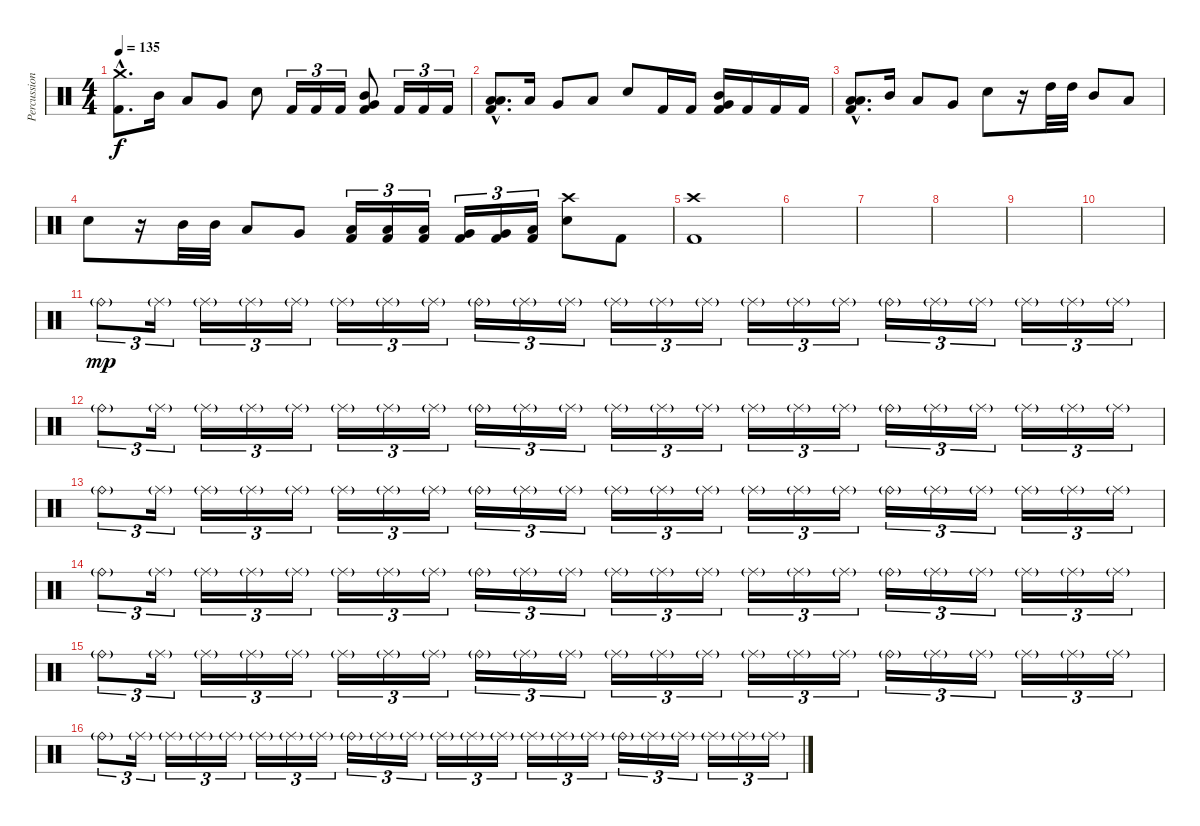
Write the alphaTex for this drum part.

\track ("Percussion" "Percussion") {instrument percussion}
\staff {score}
\articulation defaults
\ts (4 4)
\tempo 135
\clef neutral
\ks c
("Crash medium (hit)"{hac} "Kick (hit) 2"{hac}).8{d dy f} "Mid Tom (hit)".16 "Low Tom (hit)".8 "Very Low Tom (hit)".8 "Electric Snare (hit)".8 "Kick (hit) 2".16{tu (3 2)} "Kick (hit) 2".16{tu (3 2)} "Kick (hit) 2".16{tu (3 2)} ("Mid Tom (hit)" "Very Low Tom (hit)" "Kick (hit) 2").8 "Kick (hit) 2".16{tu (3 2)} "Kick (hit) 2".16{tu (3 2)} "Kick (hit) 2".16{tu (3 2)} |
("Low Tom (hit)"{hac} "Low Floor Tom (hit)"{hac} "Kick (hit) 2"{hac}).8{d} "Low Tom (hit)".16 "Very Low Tom (hit)".8 "Low Floor Tom (hit)".8 "Electric Snare (hit)".8 "Kick (hit) 2".16 "Kick (hit) 2".16 ("Mid Tom (hit)" "Very Low Tom (hit)" "Kick (hit) 2").16 "Kick (hit) 2".16 "Kick (hit) 2".16 "Kick (hit) 2".16 |
("Low Tom (hit)"{hac} "Low Floor Tom (hit)"{hac} "Kick (hit) 2"{hac}).8{d} "Mid Tom (hit)".16 "Low Tom (hit)".8 "Very Low Tom (hit)".8 "Electric Snare (hit)".8 r.16 "High Tom (hit)".32 "High Tom (hit)".32 "Mid Tom (hit)".8 "Low Tom (hit)".8 |
"Electric Snare (hit)".8 r.16 "Mid Tom (hit)".32 "Mid Tom (hit)".32 "Low Tom (hit)".8 "Very Low Tom (hit)".8 ("Low Tom (hit)" "Kick (hit) 2").16{tu (3 2)} ("Low Tom (hit)" "Kick (hit) 2").16{tu (3 2)} ("Low Tom (hit)" "Kick (hit) 2").16{tu (3 2)} ("Very Low Tom (hit)" "Kick (hit) 2").16{tu (3 2)} ("Very Low Tom (hit)" "Kick (hit) 2").16{tu (3 2)} ("Low Floor Tom (hit)" "Kick (hit) 2").16{tu (3 2)} ("Crash high (hit)" "Electric Snare (hit)").8 "Kick (hit) 2".8 |
("Crash high (hit)" "Kick (hit) 2").1 |
|
|
|
|
|
"Ride (bell)"{g}.8{tu (3 2) dy mp} "Ride (middle)"{g}.16{tu (3 2)} "Ride (middle)"{g}.16{tu (3 2)} "Ride (middle)"{g}.16{tu (3 2)} "Ride (middle)"{g}.16{tu (3 2)} "Ride (middle)"{g}.16{tu (3 2)} "Ride (middle)"{g}.16{tu (3 2)} "Ride (middle)"{g}.16{tu (3 2)} "Ride (bell)"{g}.16{tu (3 2)} "Ride (middle)"{g}.16{tu (3 2)} "Ride (middle)"{g}.16{tu (3 2)} "Ride (middle)"{g}.16{tu (3 2)} "Ride (middle)"{g}.16{tu (3 2)} "Ride (middle)"{g}.16{tu (3 2)} "Ride (middle)"{g}.16{tu (3 2)} "Ride (middle)"{g}.16{tu (3 2)} "Ride (middle)"{g}.16{tu (3 2)} "Ride (bell)"{g}.16{tu (3 2)} "Ride (middle)"{g}.16{tu (3 2)} "Ride (middle)"{g}.16{tu (3 2)} "Ride (middle)"{g}.16{tu (3 2)} "Ride (middle)"{g}.16{tu (3 2)} "Ride (middle)"{g}.16{tu (3 2)} |
"Ride (bell)"{g}.8{tu (3 2)} "Ride (middle)"{g}.16{tu (3 2)} "Ride (middle)"{g}.16{tu (3 2)} "Ride (middle)"{g}.16{tu (3 2)} "Ride (middle)"{g}.16{tu (3 2)} "Ride (middle)"{g}.16{tu (3 2)} "Ride (middle)"{g}.16{tu (3 2)} "Ride (middle)"{g}.16{tu (3 2)} "Ride (bell)"{g}.16{tu (3 2)} "Ride (middle)"{g}.16{tu (3 2)} "Ride (middle)"{g}.16{tu (3 2)} "Ride (middle)"{g}.16{tu (3 2)} "Ride (middle)"{g}.16{tu (3 2)} "Ride (middle)"{g}.16{tu (3 2)} "Ride (middle)"{g}.16{tu (3 2)} "Ride (middle)"{g}.16{tu (3 2)} "Ride (middle)"{g}.16{tu (3 2)} "Ride (bell)"{g}.16{tu (3 2)} "Ride (middle)"{g}.16{tu (3 2)} "Ride (middle)"{g}.16{tu (3 2)} "Ride (middle)"{g}.16{tu (3 2)} "Ride (middle)"{g}.16{tu (3 2)} "Ride (middle)"{g}.16{tu (3 2)} |
"Ride (bell)"{g}.8{tu (3 2)} "Ride (middle)"{g}.16{tu (3 2)} "Ride (middle)"{g}.16{tu (3 2)} "Ride (middle)"{g}.16{tu (3 2)} "Ride (middle)"{g}.16{tu (3 2)} "Ride (middle)"{g}.16{tu (3 2)} "Ride (middle)"{g}.16{tu (3 2)} "Ride (middle)"{g}.16{tu (3 2)} "Ride (bell)"{g}.16{tu (3 2)} "Ride (middle)"{g}.16{tu (3 2)} "Ride (middle)"{g}.16{tu (3 2)} "Ride (middle)"{g}.16{tu (3 2)} "Ride (middle)"{g}.16{tu (3 2)} "Ride (middle)"{g}.16{tu (3 2)} "Ride (middle)"{g}.16{tu (3 2)} "Ride (middle)"{g}.16{tu (3 2)} "Ride (middle)"{g}.16{tu (3 2)} "Ride (bell)"{g}.16{tu (3 2)} "Ride (middle)"{g}.16{tu (3 2)} "Ride (middle)"{g}.16{tu (3 2)} "Ride (middle)"{g}.16{tu (3 2)} "Ride (middle)"{g}.16{tu (3 2)} "Ride (middle)"{g}.16{tu (3 2)} |
"Ride (bell)"{g}.8{tu (3 2)} "Ride (middle)"{g}.16{tu (3 2)} "Ride (middle)"{g}.16{tu (3 2)} "Ride (middle)"{g}.16{tu (3 2)} "Ride (middle)"{g}.16{tu (3 2)} "Ride (middle)"{g}.16{tu (3 2)} "Ride (middle)"{g}.16{tu (3 2)} "Ride (middle)"{g}.16{tu (3 2)} "Ride (bell)"{g}.16{tu (3 2)} "Ride (middle)"{g}.16{tu (3 2)} "Ride (middle)"{g}.16{tu (3 2)} "Ride (middle)"{g}.16{tu (3 2)} "Ride (middle)"{g}.16{tu (3 2)} "Ride (middle)"{g}.16{tu (3 2)} "Ride (middle)"{g}.16{tu (3 2)} "Ride (middle)"{g}.16{tu (3 2)} "Ride (middle)"{g}.16{tu (3 2)} "Ride (bell)"{g}.16{tu (3 2)} "Ride (middle)"{g}.16{tu (3 2)} "Ride (middle)"{g}.16{tu (3 2)} "Ride (middle)"{g}.16{tu (3 2)} "Ride (middle)"{g}.16{tu (3 2)} "Ride (middle)"{g}.16{tu (3 2)} |
"Ride (bell)"{g}.8{tu (3 2)} "Ride (middle)"{g}.16{tu (3 2)} "Ride (middle)"{g}.16{tu (3 2)} "Ride (middle)"{g}.16{tu (3 2)} "Ride (middle)"{g}.16{tu (3 2)} "Ride (middle)"{g}.16{tu (3 2)} "Ride (middle)"{g}.16{tu (3 2)} "Ride (middle)"{g}.16{tu (3 2)} "Ride (bell)"{g}.16{tu (3 2)} "Ride (middle)"{g}.16{tu (3 2)} "Ride (middle)"{g}.16{tu (3 2)} "Ride (middle)"{g}.16{tu (3 2)} "Ride (middle)"{g}.16{tu (3 2)} "Ride (middle)"{g}.16{tu (3 2)} "Ride (middle)"{g}.16{tu (3 2)} "Ride (middle)"{g}.16{tu (3 2)} "Ride (middle)"{g}.16{tu (3 2)} "Ride (bell)"{g}.16{tu (3 2)} "Ride (middle)"{g}.16{tu (3 2)} "Ride (middle)"{g}.16{tu (3 2)} "Ride (middle)"{g}.16{tu (3 2)} "Ride (middle)"{g}.16{tu (3 2)} "Ride (middle)"{g}.16{tu (3 2)} |
"Ride (bell)"{g}.8{tu (3 2)} "Ride (middle)"{g}.16{tu (3 2)} "Ride (middle)"{g}.16{tu (3 2)} "Ride (middle)"{g}.16{tu (3 2)} "Ride (middle)"{g}.16{tu (3 2)} "Ride (middle)"{g}.16{tu (3 2)} "Ride (middle)"{g}.16{tu (3 2)} "Ride (middle)"{g}.16{tu (3 2)} "Ride (bell)"{g}.16{tu (3 2)} "Ride (middle)"{g}.16{tu (3 2)} "Ride (middle)"{g}.16{tu (3 2)} "Ride (middle)"{g}.16{tu (3 2)} "Ride (middle)"{g}.16{tu (3 2)} "Ride (middle)"{g}.16{tu (3 2)} "Ride (middle)"{g}.16{tu (3 2)} "Ride (middle)"{g}.16{tu (3 2)} "Ride (middle)"{g}.16{tu (3 2)} "Ride (bell)"{g}.16{tu (3 2)} "Ride (middle)"{g}.16{tu (3 2)} "Ride (middle)"{g}.16{tu (3 2)} "Ride (middle)"{g}.16{tu (3 2)} "Ride (middle)"{g}.16{tu (3 2)} "Ride (middle)"{g}.16{tu (3 2)}
